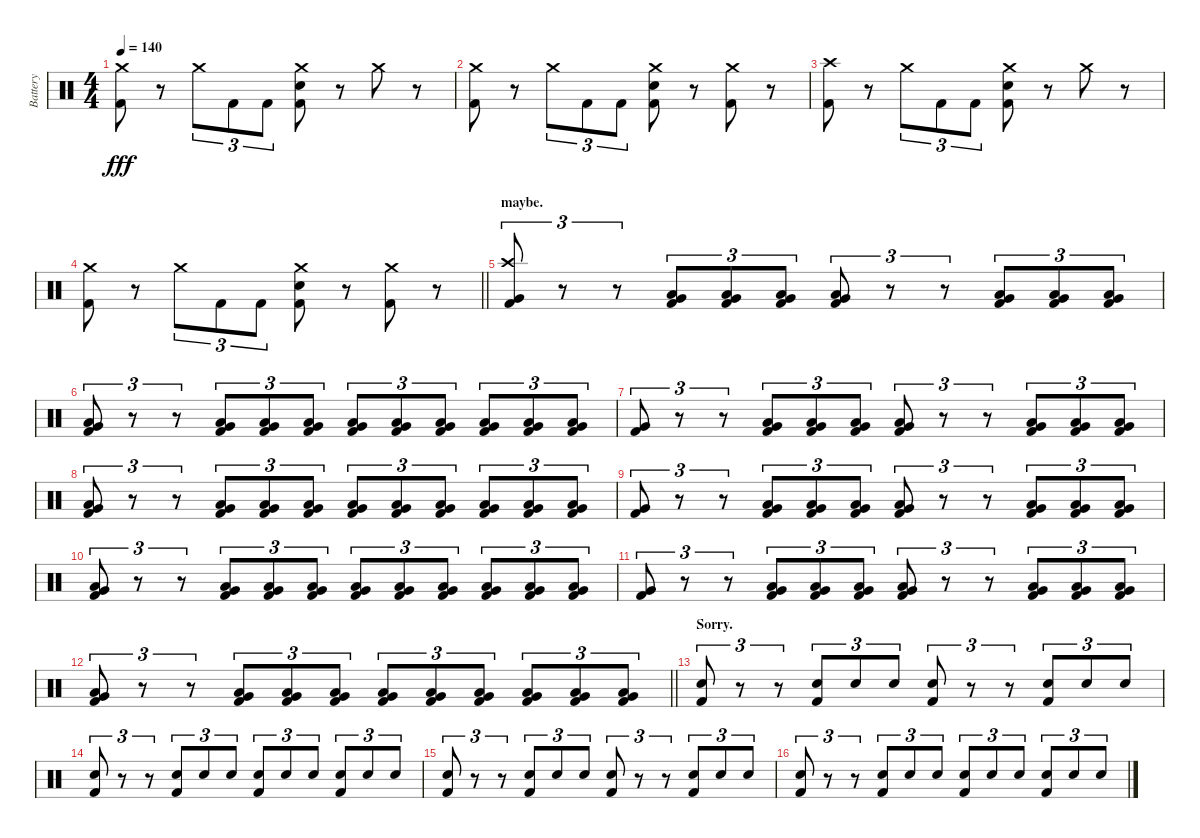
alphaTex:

\track ("Battery" "Battery") {instrument percussion}
\staff {score}
\articulation defaults
\ts (4 4)
\tempo 140
\clef neutral
\ks c
("Crash medium (hit)" "Kick (hit) 2").8{dy fff} r.8 "Crash medium (hit)".8{tu (3 2)} "Kick (hit) 2".8{tu (3 2)} "Kick (hit) 2".8{tu (3 2)} ("Crash medium (hit)" "Electric Snare (hit)" "Kick (hit) 2").8 r.8 "Crash medium (hit)".8 r.8 |
("Crash medium (hit)" "Kick (hit) 2").8 r.8 "Crash medium (hit)".8{tu (3 2)} "Kick (hit) 2".8{tu (3 2)} "Kick (hit) 2".8{tu (3 2)} ("Crash medium (hit)" "Electric Snare (hit)" "Kick (hit) 2").8 r.8 ("Crash medium (hit)" "Kick (hit) 2").8 r.8 |
("Crash high (hit)" "Kick (hit) 2").8 r.8 "Crash medium (hit)".8{tu (3 2)} "Kick (hit) 2".8{tu (3 2)} "Kick (hit) 2".8{tu (3 2)} ("Crash medium (hit)" "Electric Snare (hit)" "Kick (hit) 2").8 r.8 "Crash medium (hit)".8 r.8 |
\barLineRight lightlight
("Crash medium (hit)" "Kick (hit) 2").8 r.8 "Crash medium (hit)".8{tu (3 2)} "Kick (hit) 2".8{tu (3 2)} "Kick (hit) 2".8{tu (3 2)} ("Crash medium (hit)" "Electric Snare (hit)" "Kick (hit) 2").8 r.8 ("Crash medium (hit)" "Kick (hit) 2").8 r.8 |
\section ("" "maybe.")
("Crash high (hit)" "Very Low Tom (hit)" "Kick (hit) 2").8{tu (3 2)} r.8{tu (3 2)} r.8{tu (3 2)} ("Low Tom (hit)" "Very Low Tom (hit)" "Kick (hit) 2").8{tu (3 2)} ("Low Tom (hit)" "Very Low Tom (hit)" "Kick (hit) 2").8{tu (3 2)} ("Low Tom (hit)" "Very Low Tom (hit)" "Kick (hit) 2").8{tu (3 2)} ("Low Tom (hit)" "Very Low Tom (hit)" "Kick (hit) 2").8{tu (3 2)} r.8{tu (3 2)} r.8{tu (3 2)} ("Low Tom (hit)" "Very Low Tom (hit)" "Kick (hit) 2").8{tu (3 2)} ("Low Tom (hit)" "Very Low Tom (hit)" "Kick (hit) 2").8{tu (3 2)} ("Low Tom (hit)" "Very Low Tom (hit)" "Kick (hit) 2").8{tu (3 2)} |
("Low Floor Tom (hit)" "Very Low Tom (hit)" "Kick (hit) 2").8{tu (3 2)} r.8{tu (3 2)} r.8{tu (3 2)} ("Low Floor Tom (hit)" "Very Low Tom (hit)" "Kick (hit) 2").8{tu (3 2)} ("Low Floor Tom (hit)" "Very Low Tom (hit)" "Kick (hit) 2").8{tu (3 2)} ("Low Floor Tom (hit)" "Very Low Tom (hit)" "Kick (hit) 2").8{tu (3 2)} ("Low Floor Tom (hit)" "Very Low Tom (hit)" "Kick (hit) 2").8{tu (3 2)} ("Low Floor Tom (hit)" "Very Low Tom (hit)" "Kick (hit) 2").8{tu (3 2)} ("Low Floor Tom (hit)" "Very Low Tom (hit)" "Kick (hit) 2").8{tu (3 2)} ("Low Tom (hit)" "Very Low Tom (hit)" "Kick (hit) 2").8{tu (3 2)} ("Low Tom (hit)" "Very Low Tom (hit)" "Kick (hit) 2").8{tu (3 2)} ("Low Tom (hit)" "Very Low Tom (hit)" "Kick (hit) 2").8{tu (3 2)} |
("Very Low Tom (hit)" "Kick (hit) 2").8{tu (3 2)} r.8{tu (3 2)} r.8{tu (3 2)} ("Low Tom (hit)" "Very Low Tom (hit)" "Kick (hit) 2").8{tu (3 2)} ("Low Tom (hit)" "Very Low Tom (hit)" "Kick (hit) 2").8{tu (3 2)} ("Low Tom (hit)" "Very Low Tom (hit)" "Kick (hit) 2").8{tu (3 2)} ("Low Tom (hit)" "Very Low Tom (hit)" "Kick (hit) 2").8{tu (3 2)} r.8{tu (3 2)} r.8{tu (3 2)} ("Low Tom (hit)" "Very Low Tom (hit)" "Kick (hit) 2").8{tu (3 2)} ("Low Tom (hit)" "Very Low Tom (hit)" "Kick (hit) 2").8{tu (3 2)} ("Low Tom (hit)" "Very Low Tom (hit)" "Kick (hit) 2").8{tu (3 2)} |
("Low Floor Tom (hit)" "Very Low Tom (hit)" "Kick (hit) 2").8{tu (3 2)} r.8{tu (3 2)} r.8{tu (3 2)} ("Low Floor Tom (hit)" "Very Low Tom (hit)" "Kick (hit) 2").8{tu (3 2)} ("Low Floor Tom (hit)" "Very Low Tom (hit)" "Kick (hit) 2").8{tu (3 2)} ("Low Floor Tom (hit)" "Very Low Tom (hit)" "Kick (hit) 2").8{tu (3 2)} ("Low Floor Tom (hit)" "Very Low Tom (hit)" "Kick (hit) 2").8{tu (3 2)} ("Low Floor Tom (hit)" "Very Low Tom (hit)" "Kick (hit) 2").8{tu (3 2)} ("Low Floor Tom (hit)" "Very Low Tom (hit)" "Kick (hit) 2").8{tu (3 2)} ("Low Tom (hit)" "Very Low Tom (hit)" "Kick (hit) 2").8{tu (3 2)} ("Low Tom (hit)" "Very Low Tom (hit)" "Kick (hit) 2").8{tu (3 2)} ("Low Tom (hit)" "Very Low Tom (hit)" "Kick (hit) 2").8{tu (3 2)} |
("Very Low Tom (hit)" "Kick (hit) 2").8{tu (3 2)} r.8{tu (3 2)} r.8{tu (3 2)} ("Low Tom (hit)" "Very Low Tom (hit)" "Kick (hit) 2").8{tu (3 2)} ("Low Tom (hit)" "Very Low Tom (hit)" "Kick (hit) 2").8{tu (3 2)} ("Low Tom (hit)" "Very Low Tom (hit)" "Kick (hit) 2").8{tu (3 2)} ("Low Tom (hit)" "Very Low Tom (hit)" "Kick (hit) 2").8{tu (3 2)} r.8{tu (3 2)} r.8{tu (3 2)} ("Low Tom (hit)" "Very Low Tom (hit)" "Kick (hit) 2").8{tu (3 2)} ("Low Tom (hit)" "Very Low Tom (hit)" "Kick (hit) 2").8{tu (3 2)} ("Low Tom (hit)" "Very Low Tom (hit)" "Kick (hit) 2").8{tu (3 2)} |
("Low Floor Tom (hit)" "Very Low Tom (hit)" "Kick (hit) 2").8{tu (3 2)} r.8{tu (3 2)} r.8{tu (3 2)} ("Low Floor Tom (hit)" "Very Low Tom (hit)" "Kick (hit) 2").8{tu (3 2)} ("Low Floor Tom (hit)" "Very Low Tom (hit)" "Kick (hit) 2").8{tu (3 2)} ("Low Floor Tom (hit)" "Very Low Tom (hit)" "Kick (hit) 2").8{tu (3 2)} ("Low Floor Tom (hit)" "Very Low Tom (hit)" "Kick (hit) 2").8{tu (3 2)} ("Low Floor Tom (hit)" "Very Low Tom (hit)" "Kick (hit) 2").8{tu (3 2)} ("Low Floor Tom (hit)" "Very Low Tom (hit)" "Kick (hit) 2").8{tu (3 2)} ("Low Tom (hit)" "Very Low Tom (hit)" "Kick (hit) 2").8{tu (3 2)} ("Low Tom (hit)" "Very Low Tom (hit)" "Kick (hit) 2").8{tu (3 2)} ("Low Tom (hit)" "Very Low Tom (hit)" "Kick (hit) 2").8{tu (3 2)} |
("Very Low Tom (hit)" "Kick (hit) 2").8{tu (3 2)} r.8{tu (3 2)} r.8{tu (3 2)} ("Low Tom (hit)" "Very Low Tom (hit)" "Kick (hit) 2").8{tu (3 2)} ("Low Tom (hit)" "Very Low Tom (hit)" "Kick (hit) 2").8{tu (3 2)} ("Low Tom (hit)" "Very Low Tom (hit)" "Kick (hit) 2").8{tu (3 2)} ("Low Tom (hit)" "Very Low Tom (hit)" "Kick (hit) 2").8{tu (3 2)} r.8{tu (3 2)} r.8{tu (3 2)} ("Low Tom (hit)" "Very Low Tom (hit)" "Kick (hit) 2").8{tu (3 2)} ("Low Tom (hit)" "Very Low Tom (hit)" "Kick (hit) 2").8{tu (3 2)} ("Low Tom (hit)" "Very Low Tom (hit)" "Kick (hit) 2").8{tu (3 2)} |
\barLineRight lightlight
("Low Floor Tom (hit)" "Very Low Tom (hit)" "Kick (hit) 2").8{tu (3 2)} r.8{tu (3 2)} r.8{tu (3 2)} ("Low Floor Tom (hit)" "Very Low Tom (hit)" "Kick (hit) 2").8{tu (3 2)} ("Low Floor Tom (hit)" "Very Low Tom (hit)" "Kick (hit) 2").8{tu (3 2)} ("Low Floor Tom (hit)" "Very Low Tom (hit)" "Kick (hit) 2").8{tu (3 2)} ("Low Floor Tom (hit)" "Very Low Tom (hit)" "Kick (hit) 2").8{tu (3 2)} ("Low Floor Tom (hit)" "Very Low Tom (hit)" "Kick (hit) 2").8{tu (3 2)} ("Low Floor Tom (hit)" "Very Low Tom (hit)" "Kick (hit) 2").8{tu (3 2)} ("Low Tom (hit)" "Very Low Tom (hit)" "Kick (hit) 2").8{tu (3 2)} ("Low Tom (hit)" "Very Low Tom (hit)" "Kick (hit) 2").8{tu (3 2)} ("Low Tom (hit)" "Very Low Tom (hit)" "Kick (hit) 2").8{tu (3 2)} |
\section ("" "Sorry.")
("Electric Snare (hit)" "Kick (hit) 2").8{tu (3 2)} r.8{tu (3 2)} r.8{tu (3 2)} ("Electric Snare (hit)" "Kick (hit) 2").8{tu (3 2)} "Electric Snare (hit)".8{tu (3 2)} "Electric Snare (hit)".8{tu (3 2)} ("Electric Snare (hit)" "Kick (hit) 2").8{tu (3 2)} r.8{tu (3 2)} r.8{tu (3 2)} ("Electric Snare (hit)" "Kick (hit) 2").8{tu (3 2)} "Electric Snare (hit)".8{tu (3 2)} "Electric Snare (hit)".8{tu (3 2)} |
("Electric Snare (hit)" "Kick (hit) 2").8{tu (3 2)} r.8{tu (3 2)} r.8{tu (3 2)} ("Electric Snare (hit)" "Kick (hit) 2").8{tu (3 2)} "Electric Snare (hit)".8{tu (3 2)} "Electric Snare (hit)".8{tu (3 2)} ("Electric Snare (hit)" "Kick (hit) 2").8{tu (3 2)} "Electric Snare (hit)".8{tu (3 2)} "Electric Snare (hit)".8{tu (3 2)} ("Electric Snare (hit)" "Kick (hit) 2").8{tu (3 2)} "Electric Snare (hit)".8{tu (3 2)} "Electric Snare (hit)".8{tu (3 2)} |
("Electric Snare (hit)" "Kick (hit) 2").8{tu (3 2)} r.8{tu (3 2)} r.8{tu (3 2)} ("Electric Snare (hit)" "Kick (hit) 2").8{tu (3 2)} "Electric Snare (hit)".8{tu (3 2)} "Electric Snare (hit)".8{tu (3 2)} ("Electric Snare (hit)" "Kick (hit) 2").8{tu (3 2)} r.8{tu (3 2)} r.8{tu (3 2)} ("Electric Snare (hit)" "Kick (hit) 2").8{tu (3 2)} "Electric Snare (hit)".8{tu (3 2)} "Electric Snare (hit)".8{tu (3 2)} |
("Electric Snare (hit)" "Kick (hit) 2").8{tu (3 2)} r.8{tu (3 2)} r.8{tu (3 2)} ("Electric Snare (hit)" "Kick (hit) 2").8{tu (3 2)} "Electric Snare (hit)".8{tu (3 2)} "Electric Snare (hit)".8{tu (3 2)} ("Electric Snare (hit)" "Kick (hit) 2").8{tu (3 2)} "Electric Snare (hit)".8{tu (3 2)} "Electric Snare (hit)".8{tu (3 2)} ("Electric Snare (hit)" "Kick (hit) 2").8{tu (3 2)} "Electric Snare (hit)".8{tu (3 2)} "Electric Snare (hit)".8{tu (3 2)}
